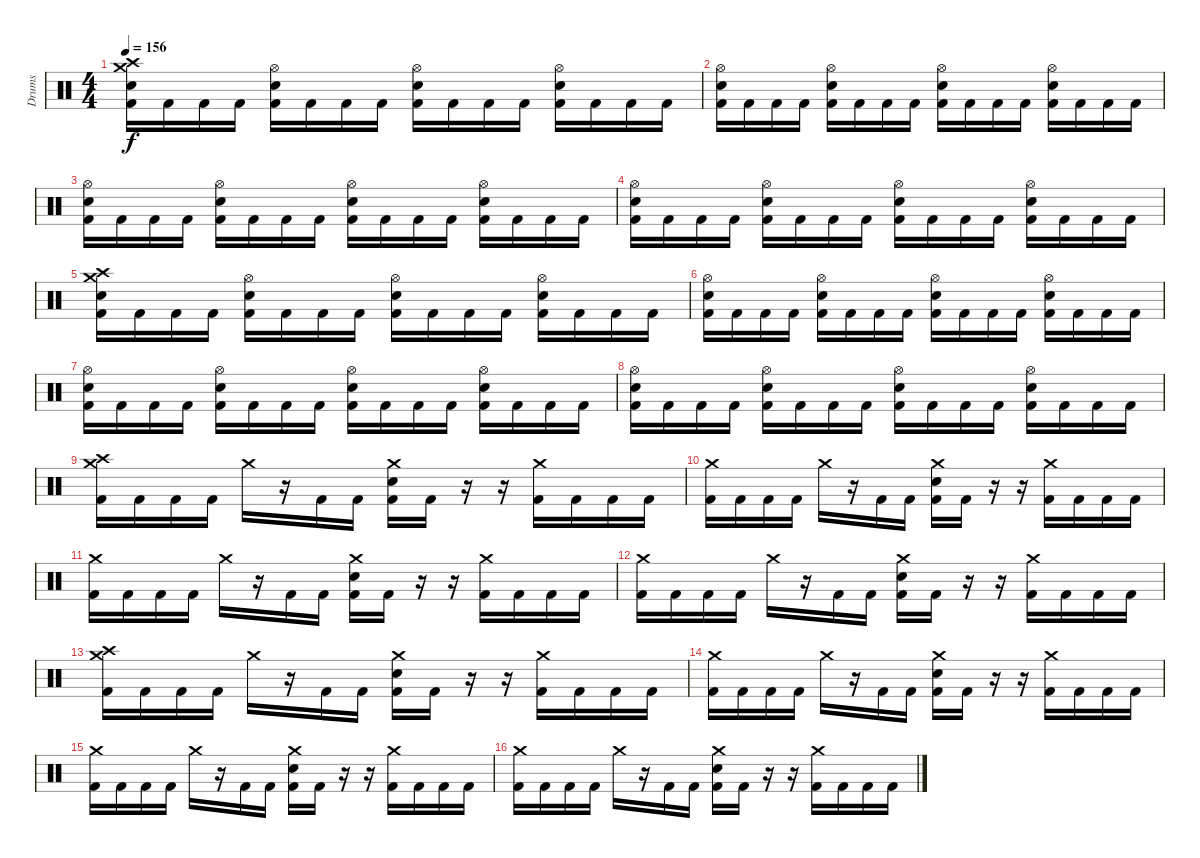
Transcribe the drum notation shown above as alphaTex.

\track ("Drums" "Drums") {instrument percussion}
\staff {score}
\articulation defaults
\ts (4 4)
\tempo 156
\clef neutral
\ks c
("Crash high (hit)" "Crash medium (hit)" "Snare (hit) 2" "Kick (hit) 2").16{dy f} "Kick (hit) 2".16 "Kick (hit) 2".16 "Kick (hit) 2".16 ("Hi-Hat (open)" "Snare (hit) 2" "Kick (hit) 2").16 "Kick (hit) 2".16 "Kick (hit) 2".16 "Kick (hit) 2".16 ("Hi-Hat (open)" "Snare (hit) 2" "Kick (hit) 2").16 "Kick (hit) 2".16 "Kick (hit) 2".16 "Kick (hit) 2".16 ("Hi-Hat (open)" "Snare (hit) 2" "Kick (hit) 2").16 "Kick (hit) 2".16 "Kick (hit) 2".16 "Kick (hit) 2".16 |
("Hi-Hat (open)" "Snare (hit) 2" "Kick (hit) 2").16 "Kick (hit) 2".16 "Kick (hit) 2".16 "Kick (hit) 2".16 ("Hi-Hat (open)" "Snare (hit) 2" "Kick (hit) 2").16 "Kick (hit) 2".16 "Kick (hit) 2".16 "Kick (hit) 2".16 ("Hi-Hat (open)" "Snare (hit) 2" "Kick (hit) 2").16 "Kick (hit) 2".16 "Kick (hit) 2".16 "Kick (hit) 2".16 ("Hi-Hat (open)" "Snare (hit) 2" "Kick (hit) 2").16 "Kick (hit) 2".16 "Kick (hit) 2".16 "Kick (hit) 2".16 |
("Hi-Hat (open)" "Snare (hit) 2" "Kick (hit) 2").16 "Kick (hit) 2".16 "Kick (hit) 2".16 "Kick (hit) 2".16 ("Hi-Hat (open)" "Snare (hit) 2" "Kick (hit) 2").16 "Kick (hit) 2".16 "Kick (hit) 2".16 "Kick (hit) 2".16 ("Hi-Hat (open)" "Snare (hit) 2" "Kick (hit) 2").16 "Kick (hit) 2".16 "Kick (hit) 2".16 "Kick (hit) 2".16 ("Hi-Hat (open)" "Snare (hit) 2" "Kick (hit) 2").16 "Kick (hit) 2".16 "Kick (hit) 2".16 "Kick (hit) 2".16 |
("Hi-Hat (open)" "Snare (hit) 2" "Kick (hit) 2").16 "Kick (hit) 2".16 "Kick (hit) 2".16 "Kick (hit) 2".16 ("Hi-Hat (open)" "Snare (hit) 2" "Kick (hit) 2").16 "Kick (hit) 2".16 "Kick (hit) 2".16 "Kick (hit) 2".16 ("Hi-Hat (open)" "Snare (hit) 2" "Kick (hit) 2").16 "Kick (hit) 2".16 "Kick (hit) 2".16 "Kick (hit) 2".16 ("Hi-Hat (open)" "Snare (hit) 2" "Kick (hit) 2").16 "Kick (hit) 2".16 "Kick (hit) 2".16 "Kick (hit) 2".16 |
("Crash high (hit)" "Crash medium (hit)" "Snare (hit) 2" "Kick (hit) 2").16 "Kick (hit) 2".16 "Kick (hit) 2".16 "Kick (hit) 2".16 ("Hi-Hat (open)" "Snare (hit) 2" "Kick (hit) 2").16 "Kick (hit) 2".16 "Kick (hit) 2".16 "Kick (hit) 2".16 ("Hi-Hat (open)" "Snare (hit) 2" "Kick (hit) 2").16 "Kick (hit) 2".16 "Kick (hit) 2".16 "Kick (hit) 2".16 ("Hi-Hat (open)" "Snare (hit) 2" "Kick (hit) 2").16 "Kick (hit) 2".16 "Kick (hit) 2".16 "Kick (hit) 2".16 |
("Hi-Hat (open)" "Snare (hit) 2" "Kick (hit) 2").16 "Kick (hit) 2".16 "Kick (hit) 2".16 "Kick (hit) 2".16 ("Hi-Hat (open)" "Snare (hit) 2" "Kick (hit) 2").16 "Kick (hit) 2".16 "Kick (hit) 2".16 "Kick (hit) 2".16 ("Hi-Hat (open)" "Snare (hit) 2" "Kick (hit) 2").16 "Kick (hit) 2".16 "Kick (hit) 2".16 "Kick (hit) 2".16 ("Hi-Hat (open)" "Snare (hit) 2" "Kick (hit) 2").16 "Kick (hit) 2".16 "Kick (hit) 2".16 "Kick (hit) 2".16 |
("Hi-Hat (open)" "Snare (hit) 2" "Kick (hit) 2").16 "Kick (hit) 2".16 "Kick (hit) 2".16 "Kick (hit) 2".16 ("Hi-Hat (open)" "Snare (hit) 2" "Kick (hit) 2").16 "Kick (hit) 2".16 "Kick (hit) 2".16 "Kick (hit) 2".16 ("Hi-Hat (open)" "Snare (hit) 2" "Kick (hit) 2").16 "Kick (hit) 2".16 "Kick (hit) 2".16 "Kick (hit) 2".16 ("Hi-Hat (open)" "Snare (hit) 2" "Kick (hit) 2").16 "Kick (hit) 2".16 "Kick (hit) 2".16 "Kick (hit) 2".16 |
("Hi-Hat (open)" "Snare (hit) 2" "Kick (hit) 2").16 "Kick (hit) 2".16 "Kick (hit) 2".16 "Kick (hit) 2".16 ("Hi-Hat (open)" "Snare (hit) 2" "Kick (hit) 2").16 "Kick (hit) 2".16 "Kick (hit) 2".16 "Kick (hit) 2".16 ("Hi-Hat (open)" "Snare (hit) 2" "Kick (hit) 2").16 "Kick (hit) 2".16 "Kick (hit) 2".16 "Kick (hit) 2".16 ("Hi-Hat (open)" "Snare (hit) 2" "Kick (hit) 2").16 "Kick (hit) 2".16 "Kick (hit) 2".16 "Kick (hit) 2".16 |
("Crash high (hit)" "Crash medium (hit)" "Kick (hit) 2").16 "Kick (hit) 2".16 "Kick (hit) 2".16 "Kick (hit) 2".16 "Crash medium (hit)".16 r.16 "Kick (hit) 2".16 "Kick (hit) 2".16 ("Crash medium (hit)" "Snare (hit) 2" "Kick (hit) 2").16 "Kick (hit) 2".16 r.16 r.16 ("Crash medium (hit)" "Kick (hit) 2").16 "Kick (hit) 2".16 "Kick (hit) 2".16 "Kick (hit) 2".16 |
("Crash medium (hit)" "Kick (hit) 2").16 "Kick (hit) 2".16 "Kick (hit) 2".16 "Kick (hit) 2".16 "Crash medium (hit)".16 r.16 "Kick (hit) 2".16 "Kick (hit) 2".16 ("Crash medium (hit)" "Snare (hit) 2" "Kick (hit) 2").16 "Kick (hit) 2".16 r.16 r.16 ("Crash medium (hit)" "Kick (hit) 2").16 "Kick (hit) 2".16 "Kick (hit) 2".16 "Kick (hit) 2".16 |
("Crash medium (hit)" "Kick (hit) 2").16 "Kick (hit) 2".16 "Kick (hit) 2".16 "Kick (hit) 2".16 "Crash medium (hit)".16 r.16 "Kick (hit) 2".16 "Kick (hit) 2".16 ("Crash medium (hit)" "Snare (hit) 2" "Kick (hit) 2").16 "Kick (hit) 2".16 r.16 r.16 ("Crash medium (hit)" "Kick (hit) 2").16 "Kick (hit) 2".16 "Kick (hit) 2".16 "Kick (hit) 2".16 |
("Crash medium (hit)" "Kick (hit) 2").16 "Kick (hit) 2".16 "Kick (hit) 2".16 "Kick (hit) 2".16 "Crash medium (hit)".16 r.16 "Kick (hit) 2".16 "Kick (hit) 2".16 ("Crash medium (hit)" "Snare (hit) 2" "Kick (hit) 2").16 "Kick (hit) 2".16 r.16 r.16 ("Crash medium (hit)" "Kick (hit) 2").16 "Kick (hit) 2".16 "Kick (hit) 2".16 "Kick (hit) 2".16 |
("Crash high (hit)" "Crash medium (hit)" "Kick (hit) 2").16 "Kick (hit) 2".16 "Kick (hit) 2".16 "Kick (hit) 2".16 "Crash medium (hit)".16 r.16 "Kick (hit) 2".16 "Kick (hit) 2".16 ("Crash medium (hit)" "Snare (hit) 2" "Kick (hit) 2").16 "Kick (hit) 2".16 r.16 r.16 ("Crash medium (hit)" "Kick (hit) 2").16 "Kick (hit) 2".16 "Kick (hit) 2".16 "Kick (hit) 2".16 |
("Crash medium (hit)" "Kick (hit) 2").16 "Kick (hit) 2".16 "Kick (hit) 2".16 "Kick (hit) 2".16 "Crash medium (hit)".16 r.16 "Kick (hit) 2".16 "Kick (hit) 2".16 ("Crash medium (hit)" "Snare (hit) 2" "Kick (hit) 2").16 "Kick (hit) 2".16 r.16 r.16 ("Crash medium (hit)" "Kick (hit) 2").16 "Kick (hit) 2".16 "Kick (hit) 2".16 "Kick (hit) 2".16 |
("Crash medium (hit)" "Kick (hit) 2").16 "Kick (hit) 2".16 "Kick (hit) 2".16 "Kick (hit) 2".16 "Crash medium (hit)".16 r.16 "Kick (hit) 2".16 "Kick (hit) 2".16 ("Crash medium (hit)" "Snare (hit) 2" "Kick (hit) 2").16 "Kick (hit) 2".16 r.16 r.16 ("Crash medium (hit)" "Kick (hit) 2").16 "Kick (hit) 2".16 "Kick (hit) 2".16 "Kick (hit) 2".16 |
("Crash medium (hit)" "Kick (hit) 2").16 "Kick (hit) 2".16 "Kick (hit) 2".16 "Kick (hit) 2".16 "Crash medium (hit)".16 r.16 "Kick (hit) 2".16 "Kick (hit) 2".16 ("Crash medium (hit)" "Snare (hit) 2" "Kick (hit) 2").16 "Kick (hit) 2".16 r.16 r.16 ("Crash medium (hit)" "Kick (hit) 2").16 "Kick (hit) 2".16 "Kick (hit) 2".16 "Kick (hit) 2".16
